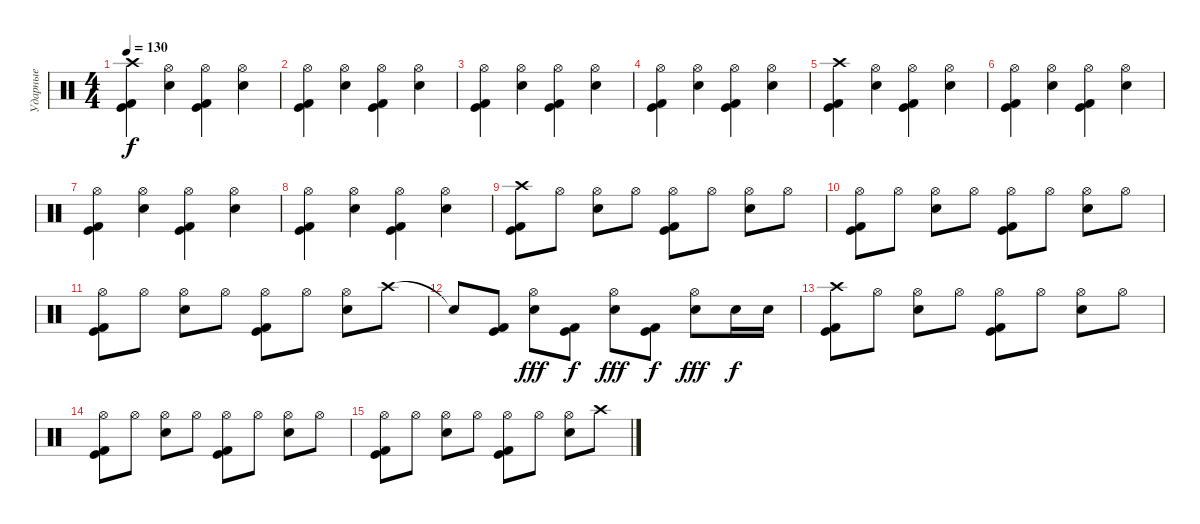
\track ("Ударные" "Ударные") {instrument percussion}
\staff {score}
\articulation defaults
\ts (4 4)
\tempo 130
\clef neutral
\ks c
("Crash high (hit)" "Kick (hit) 2" "Kick (hit)").4{dy f} ("Hi-Hat (open)" "Electric Snare (hit)").4 ("Hi-Hat (open)" "Kick (hit) 2" "Kick (hit)").4 ("Hi-Hat (open)" "Electric Snare (hit)").4 |
("Hi-Hat (open)" "Kick (hit) 2" "Kick (hit)").4 ("Hi-Hat (open)" "Electric Snare (hit)").4 ("Hi-Hat (open)" "Kick (hit) 2" "Kick (hit)").4 ("Hi-Hat (open)" "Electric Snare (hit)").4 |
("Hi-Hat (open)" "Kick (hit) 2" "Kick (hit)").4 ("Hi-Hat (open)" "Electric Snare (hit)").4 ("Hi-Hat (open)" "Kick (hit) 2" "Kick (hit)").4 ("Hi-Hat (open)" "Electric Snare (hit)").4 |
("Hi-Hat (open)" "Kick (hit) 2" "Kick (hit)").4 ("Hi-Hat (open)" "Electric Snare (hit)").4 ("Hi-Hat (open)" "Kick (hit) 2" "Kick (hit)").4 ("Hi-Hat (open)" "Electric Snare (hit)").4 |
("Crash high (hit)" "Kick (hit) 2" "Kick (hit)").4 ("Hi-Hat (open)" "Electric Snare (hit)").4 ("Hi-Hat (open)" "Kick (hit) 2" "Kick (hit)").4 ("Hi-Hat (open)" "Electric Snare (hit)").4 |
("Hi-Hat (open)" "Kick (hit) 2" "Kick (hit)").4 ("Hi-Hat (open)" "Electric Snare (hit)").4 ("Hi-Hat (open)" "Kick (hit) 2" "Kick (hit)").4 ("Hi-Hat (open)" "Electric Snare (hit)").4 |
("Hi-Hat (open)" "Kick (hit) 2" "Kick (hit)").4 ("Hi-Hat (open)" "Electric Snare (hit)").4 ("Hi-Hat (open)" "Kick (hit) 2" "Kick (hit)").4 ("Hi-Hat (open)" "Electric Snare (hit)").4 |
("Hi-Hat (open)" "Kick (hit) 2" "Kick (hit)").4 ("Hi-Hat (open)" "Electric Snare (hit)").4 ("Hi-Hat (open)" "Kick (hit) 2" "Kick (hit)").4 ("Hi-Hat (open)" "Electric Snare (hit)").4 |
("Crash high (hit)" "Kick (hit) 2" "Kick (hit)").8 "Hi-Hat (open)".8 ("Hi-Hat (open)" "Electric Snare (hit)").8 "Hi-Hat (open)".8 ("Hi-Hat (open)" "Kick (hit) 2" "Kick (hit)").8 "Hi-Hat (open)".8 ("Hi-Hat (open)" "Electric Snare (hit)").8 "Hi-Hat (open)".8 |
("Hi-Hat (open)" "Kick (hit) 2" "Kick (hit)").8 "Hi-Hat (open)".8 ("Hi-Hat (open)" "Electric Snare (hit)").8 "Hi-Hat (open)".8 ("Hi-Hat (open)" "Kick (hit) 2" "Kick (hit)").8 "Hi-Hat (open)".8 ("Hi-Hat (open)" "Electric Snare (hit)").8 "Hi-Hat (open)".8 |
("Hi-Hat (open)" "Kick (hit) 2" "Kick (hit)").8 "Hi-Hat (open)".8 ("Hi-Hat (open)" "Electric Snare (hit)").8 "Hi-Hat (open)".8 ("Hi-Hat (open)" "Kick (hit) 2" "Kick (hit)").8 "Hi-Hat (open)".8 ("Hi-Hat (open)" "Electric Snare (hit)").8 "Crash high (hit)".8 |
"Snare (hit)"{t}.8 ("Kick (hit) 2" "Kick (hit)").8 ("Hi-Hat (open)" "Electric Snare (hit)").8{dy fff} ("Kick (hit) 2" "Kick (hit)").8{dy f} ("Hi-Hat (open)" "Electric Snare (hit)").8{dy fff} ("Kick (hit) 2" "Kick (hit)").8{dy f} ("Hi-Hat (open)" "Electric Snare (hit)").8{dy fff} "Electric Snare (hit)".16{dy f} "Electric Snare (hit)".16 |
("Crash high (hit)" "Kick (hit) 2" "Kick (hit)").8 "Hi-Hat (open)".8 ("Hi-Hat (open)" "Electric Snare (hit)").8 "Hi-Hat (open)".8 ("Hi-Hat (open)" "Kick (hit) 2" "Kick (hit)").8 "Hi-Hat (open)".8 ("Hi-Hat (open)" "Electric Snare (hit)").8 "Hi-Hat (open)".8 |
("Hi-Hat (open)" "Kick (hit) 2" "Kick (hit)").8 "Hi-Hat (open)".8 ("Hi-Hat (open)" "Electric Snare (hit)").8 "Hi-Hat (open)".8 ("Hi-Hat (open)" "Kick (hit) 2" "Kick (hit)").8 "Hi-Hat (open)".8 ("Hi-Hat (open)" "Electric Snare (hit)").8 "Hi-Hat (open)".8 |
("Hi-Hat (open)" "Kick (hit) 2" "Kick (hit)").8 "Hi-Hat (open)".8 ("Hi-Hat (open)" "Electric Snare (hit)").8 "Hi-Hat (open)".8 ("Hi-Hat (open)" "Kick (hit) 2" "Kick (hit)").8 "Hi-Hat (open)".8 ("Hi-Hat (open)" "Electric Snare (hit)").8 "Crash high (hit)".8
